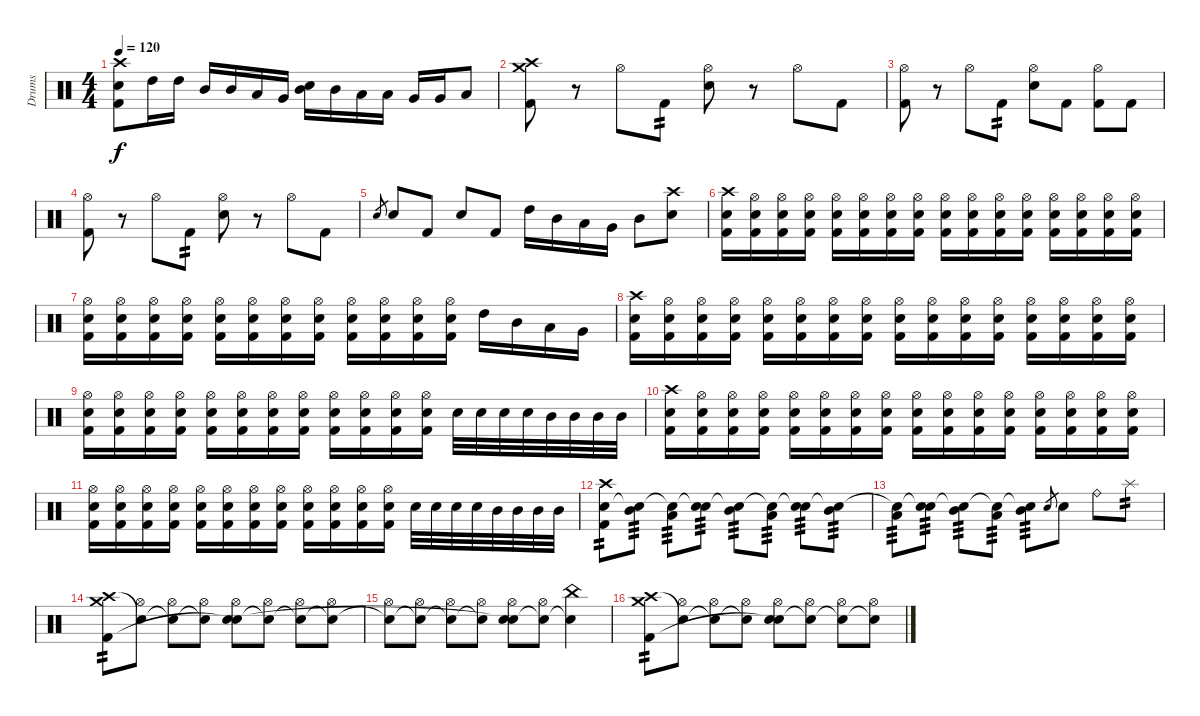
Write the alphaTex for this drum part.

\track ("Drums" "Drums") {instrument percussion}
\staff {score}
\articulation defaults
\ts (4 4)
\tempo 120
\clef neutral
\ks c
("Crash high (hit)" "Electric Snare (hit)" "Kick (hit) 2").8{dy f} "High Tom (hit)".16 "High Tom (hit)".16 "Mid Tom (hit)".16 "Mid Tom (hit)".16 "Low Tom (hit)".16 "Very Low Tom (hit)".16 ("Mid Tom (hit)" "Electric Snare (hit)").16 "Mid Tom (hit)".16 "Low Tom (hit)".16 "Low Tom (hit)".16 "Very Low Tom (hit)".16 "Very Low Tom (hit)".16 "Low Floor Tom (hit)".8 |
("Crash medium (hit)" "Crash high (hit)" "Kick (hit) 2").8 r.8 "Hi-Hat (open)".8 "Kick (hit) 2".8{tp 2} ("Hi-Hat (open)" "Electric Snare (hit)").8 r.8 "Hi-Hat (open)".8 "Kick (hit) 2".8 |
("Hi-Hat (open)" "Kick (hit) 2").8 r.8 "Hi-Hat (open)".8 "Kick (hit) 2".8{tp 2} ("Hi-Hat (open)" "Electric Snare (hit)").8 "Kick (hit) 2".8 ("Hi-Hat (open)" "Kick (hit) 2").8 "Kick (hit) 2".8 |
("Hi-Hat (open)" "Kick (hit) 2").8 r.8 "Hi-Hat (open)".8 "Kick (hit) 2".8{tp 2} ("Hi-Hat (open)" "Electric Snare (hit)").8 r.8 "Hi-Hat (open)".8 "Kick (hit) 2".8 |
"Electric Snare (hit)".8{gr} "Electric Snare (hit)".8 "Kick (hit) 2".8 "Electric Snare (hit)".8 "Kick (hit) 2".8 "High Tom (hit)".16 "Mid Tom (hit)".16 "Low Tom (hit)".16 "Very Low Tom (hit)".16 "Mid Tom (hit)".8 ("Electric Snare (hit)" "Crash high (hit)").8 |
("Crash high (hit)" "Electric Snare (hit)" "Kick (hit) 2").16 ("Hi-Hat (open)" "Electric Snare (hit)" "Kick (hit) 2").16 ("Hi-Hat (open)" "Electric Snare (hit)" "Kick (hit) 2").16 ("Hi-Hat (open)" "Electric Snare (hit)" "Kick (hit) 2").16 ("Hi-Hat (open)" "Electric Snare (hit)" "Kick (hit) 2").16 ("Hi-Hat (open)" "Electric Snare (hit)" "Kick (hit) 2").16 ("Hi-Hat (open)" "Electric Snare (hit)" "Kick (hit) 2").16 ("Hi-Hat (open)" "Electric Snare (hit)" "Kick (hit) 2").16 ("Hi-Hat (open)" "Electric Snare (hit)" "Kick (hit) 2").16 ("Hi-Hat (open)" "Electric Snare (hit)" "Kick (hit) 2").16 ("Hi-Hat (open)" "Electric Snare (hit)" "Kick (hit) 2").16 ("Hi-Hat (open)" "Electric Snare (hit)" "Kick (hit) 2").16 ("Hi-Hat (open)" "Electric Snare (hit)" "Kick (hit) 2").16 ("Hi-Hat (open)" "Electric Snare (hit)" "Kick (hit) 2").16 ("Hi-Hat (open)" "Electric Snare (hit)" "Kick (hit) 2").16 ("Hi-Hat (open)" "Electric Snare (hit)" "Kick (hit) 2").16 |
("Hi-Hat (open)" "Electric Snare (hit)" "Kick (hit) 2").16 ("Hi-Hat (open)" "Electric Snare (hit)" "Kick (hit) 2").16 ("Hi-Hat (open)" "Electric Snare (hit)" "Kick (hit) 2").16 ("Hi-Hat (open)" "Electric Snare (hit)" "Kick (hit) 2").16 ("Hi-Hat (open)" "Electric Snare (hit)" "Kick (hit) 2").16 ("Hi-Hat (open)" "Electric Snare (hit)" "Kick (hit) 2").16 ("Hi-Hat (open)" "Electric Snare (hit)" "Kick (hit) 2").16 ("Hi-Hat (open)" "Electric Snare (hit)" "Kick (hit) 2").16 ("Hi-Hat (open)" "Electric Snare (hit)" "Kick (hit) 2").16 ("Hi-Hat (open)" "Electric Snare (hit)" "Kick (hit) 2").16 ("Hi-Hat (open)" "Electric Snare (hit)" "Kick (hit) 2").16 ("Hi-Hat (open)" "Electric Snare (hit)" "Kick (hit) 2").16 "High Tom (hit)".16 "Mid Tom (hit)".16 "Low Tom (hit)".16 "Very Low Tom (hit)".16 |
("Crash high (hit)" "Electric Snare (hit)" "Kick (hit) 2").16 ("Hi-Hat (open)" "Electric Snare (hit)" "Kick (hit) 2").16 ("Hi-Hat (open)" "Electric Snare (hit)" "Kick (hit) 2").16 ("Hi-Hat (open)" "Electric Snare (hit)" "Kick (hit) 2").16 ("Hi-Hat (open)" "Electric Snare (hit)" "Kick (hit) 2").16 ("Hi-Hat (open)" "Electric Snare (hit)" "Kick (hit) 2").16 ("Hi-Hat (open)" "Electric Snare (hit)" "Kick (hit) 2").16 ("Hi-Hat (open)" "Electric Snare (hit)" "Kick (hit) 2").16 ("Hi-Hat (open)" "Electric Snare (hit)" "Kick (hit) 2").16 ("Hi-Hat (open)" "Electric Snare (hit)" "Kick (hit) 2").16 ("Hi-Hat (open)" "Electric Snare (hit)" "Kick (hit) 2").16 ("Hi-Hat (open)" "Electric Snare (hit)" "Kick (hit) 2").16 ("Hi-Hat (open)" "Electric Snare (hit)" "Kick (hit) 2").16 ("Hi-Hat (open)" "Electric Snare (hit)" "Kick (hit) 2").16 ("Hi-Hat (open)" "Electric Snare (hit)" "Kick (hit) 2").16 ("Hi-Hat (open)" "Electric Snare (hit)" "Kick (hit) 2").16 |
("Hi-Hat (open)" "Electric Snare (hit)" "Kick (hit) 2").16 ("Hi-Hat (open)" "Electric Snare (hit)" "Kick (hit) 2").16 ("Hi-Hat (open)" "Electric Snare (hit)" "Kick (hit) 2").16 ("Hi-Hat (open)" "Electric Snare (hit)" "Kick (hit) 2").16 ("Hi-Hat (open)" "Electric Snare (hit)" "Kick (hit) 2").16 ("Hi-Hat (open)" "Electric Snare (hit)" "Kick (hit) 2").16 ("Hi-Hat (open)" "Electric Snare (hit)" "Kick (hit) 2").16 ("Hi-Hat (open)" "Electric Snare (hit)" "Kick (hit) 2").16 ("Hi-Hat (open)" "Electric Snare (hit)" "Kick (hit) 2").16 ("Hi-Hat (open)" "Electric Snare (hit)" "Kick (hit) 2").16 ("Hi-Hat (open)" "Electric Snare (hit)" "Kick (hit) 2").16 ("Hi-Hat (open)" "Electric Snare (hit)" "Kick (hit) 2").16 "Electric Snare (hit)".32 "Electric Snare (hit)".32 "Electric Snare (hit)".32 "Electric Snare (hit)".32 "Mid Tom (hit)".32 "Mid Tom (hit)".32 "Mid Tom (hit)".32 "Mid Tom (hit)".32 |
("Crash high (hit)" "Electric Snare (hit)" "Kick (hit) 2").16 ("Hi-Hat (open)" "Electric Snare (hit)" "Kick (hit) 2").16 ("Hi-Hat (open)" "Electric Snare (hit)" "Kick (hit) 2").16 ("Hi-Hat (open)" "Electric Snare (hit)" "Kick (hit) 2").16 ("Hi-Hat (open)" "Electric Snare (hit)" "Kick (hit) 2").16 ("Hi-Hat (open)" "Electric Snare (hit)" "Kick (hit) 2").16 ("Hi-Hat (open)" "Electric Snare (hit)" "Kick (hit) 2").16 ("Hi-Hat (open)" "Electric Snare (hit)" "Kick (hit) 2").16 ("Hi-Hat (open)" "Electric Snare (hit)" "Kick (hit) 2").16 ("Hi-Hat (open)" "Electric Snare (hit)" "Kick (hit) 2").16 ("Hi-Hat (open)" "Electric Snare (hit)" "Kick (hit) 2").16 ("Hi-Hat (open)" "Electric Snare (hit)" "Kick (hit) 2").16 ("Hi-Hat (open)" "Electric Snare (hit)" "Kick (hit) 2").16 ("Hi-Hat (open)" "Electric Snare (hit)" "Kick (hit) 2").16 ("Hi-Hat (open)" "Electric Snare (hit)" "Kick (hit) 2").16 ("Hi-Hat (open)" "Electric Snare (hit)" "Kick (hit) 2").16 |
("Hi-Hat (open)" "Electric Snare (hit)" "Kick (hit) 2").16 ("Hi-Hat (open)" "Electric Snare (hit)" "Kick (hit) 2").16 ("Hi-Hat (open)" "Electric Snare (hit)" "Kick (hit) 2").16 ("Hi-Hat (open)" "Electric Snare (hit)" "Kick (hit) 2").16 ("Hi-Hat (open)" "Electric Snare (hit)" "Kick (hit) 2").16 ("Hi-Hat (open)" "Electric Snare (hit)" "Kick (hit) 2").16 ("Hi-Hat (open)" "Electric Snare (hit)" "Kick (hit) 2").16 ("Hi-Hat (open)" "Electric Snare (hit)" "Kick (hit) 2").16 ("Hi-Hat (open)" "Electric Snare (hit)" "Kick (hit) 2").16 ("Hi-Hat (open)" "Electric Snare (hit)" "Kick (hit) 2").16 ("Hi-Hat (open)" "Electric Snare (hit)" "Kick (hit) 2").16 ("Hi-Hat (open)" "Electric Snare (hit)" "Kick (hit) 2").16 "Electric Snare (hit)".32 "Electric Snare (hit)".32 "Electric Snare (hit)".32 "Electric Snare (hit)".32 "Mid Tom (hit)".32 "Mid Tom (hit)".32 "Mid Tom (hit)".32 "Mid Tom (hit)".32 |
("Crash high (hit)" "Electric Snare (hit)" "Kick (hit) 2").8{tp 2} ("Mid Tom (hit)" "Snare (hit)"{t}).8{tp 3} ("Low Tom (hit)" "Snare (hit)"{t}).8{tp 3} ("Electric Snare (hit)" "Snare (hit)"{t}).8{tp 3} ("Mid Tom (hit)" "Snare (hit)"{t}).8{tp 3} ("Low Tom (hit)" "Snare (hit)"{t}).8{tp 3} ("Electric Snare (hit)" "Snare (hit)"{t}).8{tp 3} ("Mid Tom (hit)" "Snare (hit)"{t}).8{tp 3} |
("Low Tom (hit)" "Snare (hit)"{t}).8{tp 3} ("Electric Snare (hit)" "Snare (hit)"{t}).8{tp 3} ("Mid Tom (hit)" "Snare (hit)"{t}).8{tp 3} ("Low Tom (hit)" "Snare (hit)"{t}).8{tp 3} ("Mid Tom (hit)" "Snare (hit)"{t}).8{tp 3} "Electric Snare (hit)".8{gr} "Electric Snare (hit)".8 "Ride (bell)".8 "Splash (hit)".8{tp 2} |
("Crash medium (hit)" "Crash high (hit)" "Kick (hit) 2").8{tp 2} ("Hi-Hat (open)" "Snare (hit)"{t}).8 ("Hi-Hat (open)" "Snare (hit)"{t}).8 ("Hi-Hat (open)" "Snare (hit)"{t}).8 ("Hi-Hat (open)" "Electric Snare (hit)" "Snare (hit)"{t}).8 ("Hi-Hat (open)" "Snare (hit)"{t}).8 ("Hi-Hat (open)" "Snare (hit)"{t}).8 ("Hi-Hat (open)" "Snare (hit)"{t}).8 |
("Hi-Hat (open)" "Snare (hit)"{t}).8 ("Hi-Hat (open)" "Snare (hit)"{t}).8 ("Hi-Hat (open)" "Snare (hit)"{t}).8 ("Hi-Hat (open)" "Snare (hit)"{t}).8 ("Hi-Hat (open)" "Electric Snare (hit)" "Snare (hit)"{t}).8 ("Hi-Hat (open)" "Snare (hit)"{t}).8 ("China (hit)" "Snare (hit)"{t}).4 |
("Crash medium (hit)" "Crash high (hit)" "Kick (hit) 2").8{tp 2} ("Hi-Hat (open)" "Snare (hit)"{t}).8 ("Hi-Hat (open)" "Snare (hit)"{t}).8 ("Hi-Hat (open)" "Snare (hit)"{t}).8 ("Hi-Hat (open)" "Electric Snare (hit)" "Snare (hit)"{t}).8 ("Hi-Hat (open)" "Snare (hit)"{t}).8 ("Hi-Hat (open)" "Snare (hit)"{t}).8 ("Hi-Hat (open)" "Snare (hit)"{t}).8
